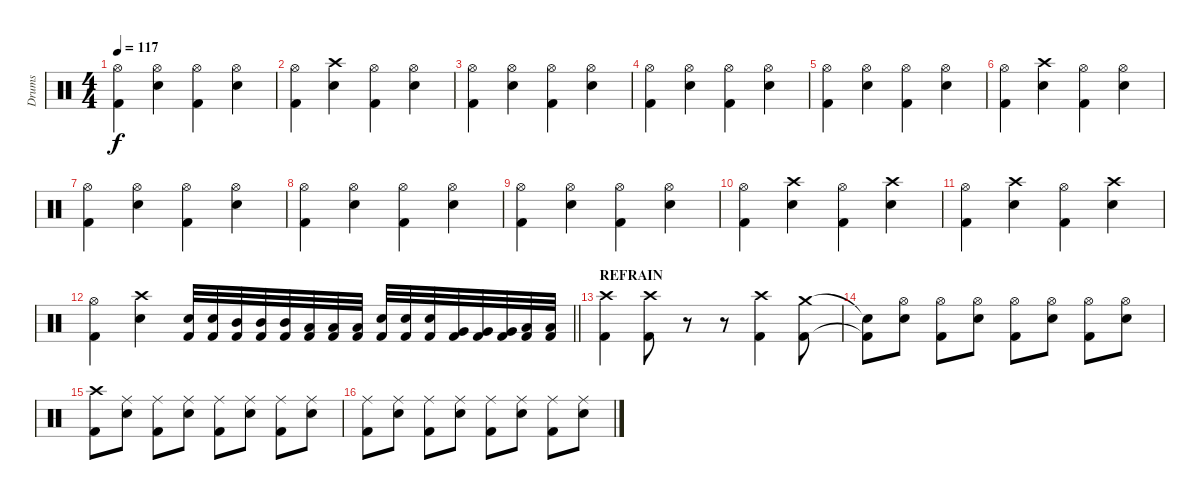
\track ("Drums" "Drums") {instrument percussion}
\staff {score}
\articulation defaults
\ts (4 4)
\tempo 117
\clef neutral
\ks c
("Hi-Hat (open)" "Kick (hit) 2").4{dy f} ("Hi-Hat (open)" "Electric Snare (hit)").4 ("Hi-Hat (open)" "Kick (hit) 2").4 ("Hi-Hat (open)" "Electric Snare (hit)").4 |
("Hi-Hat (open)" "Kick (hit) 2").4 ("Crash high (hit)" "Electric Snare (hit)").4 ("Hi-Hat (open)" "Kick (hit) 2").4 ("Hi-Hat (open)" "Electric Snare (hit)").4 |
("Hi-Hat (open)" "Kick (hit) 2").4 ("Hi-Hat (open)" "Electric Snare (hit)").4 ("Hi-Hat (open)" "Kick (hit) 2").4 ("Hi-Hat (open)" "Electric Snare (hit)").4 |
("Hi-Hat (open)" "Kick (hit) 2").4 ("Hi-Hat (open)" "Electric Snare (hit)").4 ("Hi-Hat (open)" "Kick (hit) 2").4 ("Hi-Hat (open)" "Electric Snare (hit)").4 |
("Hi-Hat (open)" "Kick (hit) 2").4 ("Hi-Hat (open)" "Electric Snare (hit)").4 ("Hi-Hat (open)" "Kick (hit) 2").4 ("Hi-Hat (open)" "Electric Snare (hit)").4 |
("Hi-Hat (open)" "Kick (hit) 2").4 ("Crash high (hit)" "Electric Snare (hit)").4 ("Hi-Hat (open)" "Kick (hit) 2").4 ("Hi-Hat (open)" "Electric Snare (hit)").4 |
("Hi-Hat (open)" "Kick (hit) 2").4 ("Hi-Hat (open)" "Electric Snare (hit)").4 ("Hi-Hat (open)" "Kick (hit) 2").4 ("Hi-Hat (open)" "Electric Snare (hit)").4 |
("Hi-Hat (open)" "Kick (hit) 2").4 ("Hi-Hat (open)" "Electric Snare (hit)").4 ("Hi-Hat (open)" "Kick (hit) 2").4 ("Hi-Hat (open)" "Electric Snare (hit)").4 |
("Hi-Hat (open)" "Kick (hit) 2").4 ("Hi-Hat (open)" "Electric Snare (hit)").4 ("Hi-Hat (open)" "Kick (hit) 2").4 ("Hi-Hat (open)" "Electric Snare (hit)").4 |
("Hi-Hat (open)" "Kick (hit) 2").4 ("Crash high (hit)" "Electric Snare (hit)").4 ("Hi-Hat (open)" "Kick (hit) 2").4 ("Crash high (hit)" "Electric Snare (hit)").4 |
("Hi-Hat (open)" "Kick (hit) 2").4 ("Crash high (hit)" "Electric Snare (hit)").4 ("Hi-Hat (open)" "Kick (hit) 2").4 ("Crash high (hit)" "Electric Snare (hit)").4 |
\barLineRight lightlight
("Hi-Hat (open)" "Kick (hit) 2").4 ("Crash high (hit)" "Electric Snare (hit)").4 ("Electric Snare (hit)" "Kick (hit) 2").32 ("Electric Snare (hit)" "Kick (hit) 2").32 ("Mid Tom (hit)" "Kick (hit) 2").32 ("Mid Tom (hit)" "Kick (hit) 2").32 ("Mid Tom (hit)" "Kick (hit) 2").32 ("Low Tom (hit)" "Kick (hit) 2").32 ("Low Tom (hit)" "Kick (hit) 2").32 ("Low Tom (hit)" "Kick (hit) 2").32 ("Electric Snare (hit)" "Kick (hit) 2").32 ("Electric Snare (hit)" "Kick (hit) 2").32 ("Electric Snare (hit)" "Kick (hit) 2").32 ("Very Low Tom (hit)" "Kick (hit) 2").32 ("Very Low Tom (hit)" "Kick (hit) 2").32 ("Very Low Tom (hit)" "Kick (hit) 2").32 ("Low Floor Tom (hit)" "Kick (hit) 2").32 ("Low Floor Tom (hit)" "Kick (hit) 2").32 |
\section ("" "REFRAIN")
("Crash high (hit)" "Kick (hit) 2").4 ("Crash high (hit)" "Kick (hit) 2").8 r.8 r.8 ("Crash high (hit)" "Kick (hit) 2").4 ("Crash medium (hit)" "Kick (hit) 2").8 |
("Snare (hit)"{t} "Kick (hit) 2"{t}).8 ("Hi-Hat (open)" "Electric Snare (hit)").8 ("Hi-Hat (open)" "Kick (hit) 2").8 ("Hi-Hat (open)" "Electric Snare (hit)").8 ("Hi-Hat (open)" "Kick (hit) 2").8 ("Hi-Hat (open)" "Electric Snare (hit)").8 ("Hi-Hat (open)" "Kick (hit) 2").8 ("Hi-Hat (open)" "Electric Snare (hit)").8 |
("Crash high (hit)" "Kick (hit) 2").8 ("Ride (middle)" "Electric Snare (hit)").8 ("Ride (middle)" "Kick (hit) 2").8 ("Ride (middle)" "Electric Snare (hit)").8 ("Ride (middle)" "Kick (hit) 2").8 ("Ride (middle)" "Electric Snare (hit)").8 ("Ride (middle)" "Kick (hit) 2").8 ("Ride (middle)" "Electric Snare (hit)").8 |
("Ride (middle)" "Kick (hit) 2").8 ("Ride (middle)" "Electric Snare (hit)").8 ("Ride (middle)" "Kick (hit) 2").8 ("Ride (middle)" "Electric Snare (hit)").8 ("Ride (middle)" "Kick (hit) 2").8 ("Ride (middle)" "Electric Snare (hit)").8 ("Ride (middle)" "Kick (hit) 2").8 ("Ride (middle)" "Electric Snare (hit)").8
